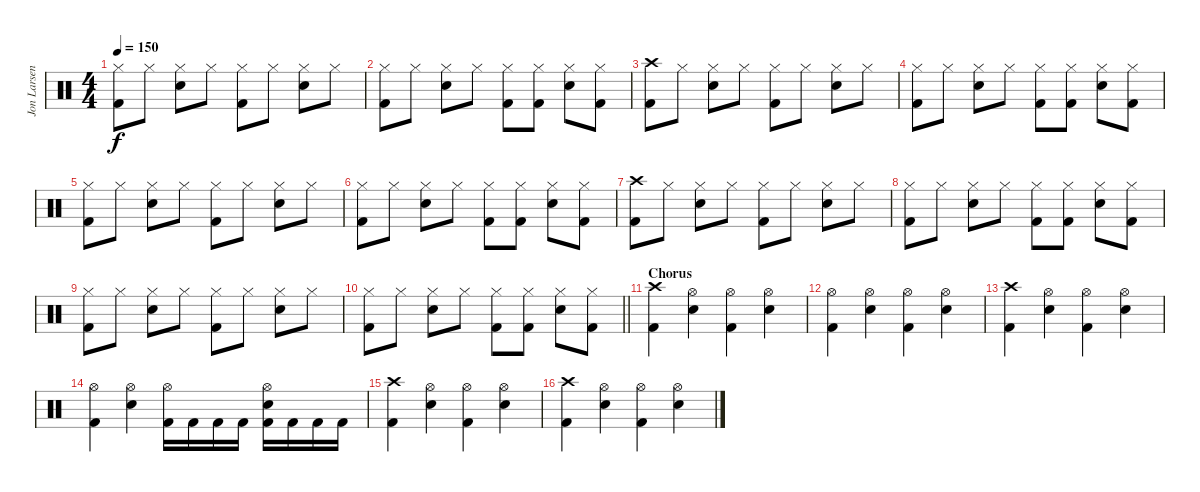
\track ("Jon Larsen" "Jon Larsen") {instrument percussion bank 10}
\staff {score}
\articulation defaults
\ts (4 4)
\tempo 150
\clef neutral
\ks c
("Hi-Hat (closed)" "Kick (hit) 2").8{dy f} "Hi-Hat (closed)".8 ("Hi-Hat (closed)" "Electric Snare (hit)").8 "Hi-Hat (closed)".8 ("Hi-Hat (closed)" "Kick (hit) 2").8 "Hi-Hat (closed)".8 ("Hi-Hat (closed)" "Electric Snare (hit)").8 "Hi-Hat (closed)".8 |
("Hi-Hat (closed)" "Kick (hit) 2").8 "Hi-Hat (closed)".8 ("Hi-Hat (closed)" "Electric Snare (hit)").8 "Hi-Hat (closed)".8 ("Hi-Hat (closed)" "Kick (hit) 2").8 ("Hi-Hat (closed)" "Kick (hit) 2").8 ("Hi-Hat (closed)" "Electric Snare (hit)").8 ("Hi-Hat (closed)" "Kick (hit) 2").8 |
("Crash high (hit)" "Kick (hit) 2").8 "Hi-Hat (closed)".8 ("Hi-Hat (closed)" "Electric Snare (hit)").8 "Hi-Hat (closed)".8 ("Hi-Hat (closed)" "Kick (hit) 2").8 "Hi-Hat (closed)".8 ("Hi-Hat (closed)" "Electric Snare (hit)").8 "Hi-Hat (closed)".8 |
("Hi-Hat (closed)" "Kick (hit) 2").8 "Hi-Hat (closed)".8 ("Hi-Hat (closed)" "Electric Snare (hit)").8 "Hi-Hat (closed)".8 ("Hi-Hat (closed)" "Kick (hit) 2").8 ("Hi-Hat (closed)" "Kick (hit) 2").8 ("Hi-Hat (closed)" "Electric Snare (hit)").8 ("Hi-Hat (closed)" "Kick (hit) 2").8 |
("Hi-Hat (closed)" "Kick (hit) 2").8 "Hi-Hat (closed)".8 ("Hi-Hat (closed)" "Electric Snare (hit)").8 "Hi-Hat (closed)".8 ("Hi-Hat (closed)" "Kick (hit) 2").8 "Hi-Hat (closed)".8 ("Hi-Hat (closed)" "Electric Snare (hit)").8 "Hi-Hat (closed)".8 |
("Hi-Hat (closed)" "Kick (hit) 2").8 "Hi-Hat (closed)".8 ("Hi-Hat (closed)" "Electric Snare (hit)").8 "Hi-Hat (closed)".8 ("Hi-Hat (closed)" "Kick (hit) 2").8 ("Hi-Hat (closed)" "Kick (hit) 2").8 ("Hi-Hat (closed)" "Electric Snare (hit)").8 ("Hi-Hat (closed)" "Kick (hit) 2").8 |
("Crash high (hit)" "Kick (hit) 2").8 "Hi-Hat (closed)".8 ("Hi-Hat (closed)" "Electric Snare (hit)").8 "Hi-Hat (closed)".8 ("Hi-Hat (closed)" "Kick (hit) 2").8 "Hi-Hat (closed)".8 ("Hi-Hat (closed)" "Electric Snare (hit)").8 "Hi-Hat (closed)".8 |
("Hi-Hat (closed)" "Kick (hit) 2").8 "Hi-Hat (closed)".8 ("Hi-Hat (closed)" "Electric Snare (hit)").8 "Hi-Hat (closed)".8 ("Hi-Hat (closed)" "Kick (hit) 2").8 ("Hi-Hat (closed)" "Kick (hit) 2").8 ("Hi-Hat (closed)" "Electric Snare (hit)").8 ("Hi-Hat (closed)" "Kick (hit) 2").8 |
("Hi-Hat (closed)" "Kick (hit) 2").8 "Hi-Hat (closed)".8 ("Hi-Hat (closed)" "Electric Snare (hit)").8 "Hi-Hat (closed)".8 ("Hi-Hat (closed)" "Kick (hit) 2").8 "Hi-Hat (closed)".8 ("Hi-Hat (closed)" "Electric Snare (hit)").8 "Hi-Hat (closed)".8 |
\barLineRight lightlight
("Hi-Hat (closed)" "Kick (hit) 2").8 "Hi-Hat (closed)".8 ("Hi-Hat (closed)" "Electric Snare (hit)").8 "Hi-Hat (closed)".8 ("Hi-Hat (closed)" "Kick (hit) 2").8 ("Hi-Hat (closed)" "Kick (hit) 2").8 ("Hi-Hat (closed)" "Electric Snare (hit)").8 ("Hi-Hat (closed)" "Kick (hit) 2").8 |
\section ("" "Chorus")
("Crash high (hit)" "Kick (hit) 2").4 ("Hi-Hat (open)" "Electric Snare (hit)").4 ("Hi-Hat (open)" "Kick (hit) 2").4 ("Hi-Hat (open)" "Electric Snare (hit)").4 |
("Hi-Hat (open)" "Kick (hit) 2").4 ("Hi-Hat (open)" "Electric Snare (hit)").4 ("Hi-Hat (open)" "Kick (hit) 2").4 ("Hi-Hat (open)" "Electric Snare (hit)").4 |
("Crash high (hit)" "Kick (hit) 2").4 ("Hi-Hat (open)" "Electric Snare (hit)").4 ("Hi-Hat (open)" "Kick (hit) 2").4 ("Hi-Hat (open)" "Electric Snare (hit)").4 |
("Hi-Hat (open)" "Kick (hit) 2").4 ("Hi-Hat (open)" "Electric Snare (hit)").4 ("Hi-Hat (open)" "Kick (hit) 2").16 "Kick (hit) 2".16 "Kick (hit) 2".16 "Kick (hit) 2".16 ("Hi-Hat (open)" "Electric Snare (hit)" "Kick (hit) 2").16 "Kick (hit) 2".16 "Kick (hit) 2".16 "Kick (hit) 2".16 |
("Crash high (hit)" "Kick (hit) 2").4 ("Hi-Hat (open)" "Electric Snare (hit)").4 ("Hi-Hat (open)" "Kick (hit) 2").4 ("Hi-Hat (open)" "Electric Snare (hit)").4 |
("Crash high (hit)" "Kick (hit) 2").4 ("Hi-Hat (open)" "Electric Snare (hit)").4 ("Hi-Hat (open)" "Kick (hit) 2").4 ("Hi-Hat (open)" "Electric Snare (hit)").4
